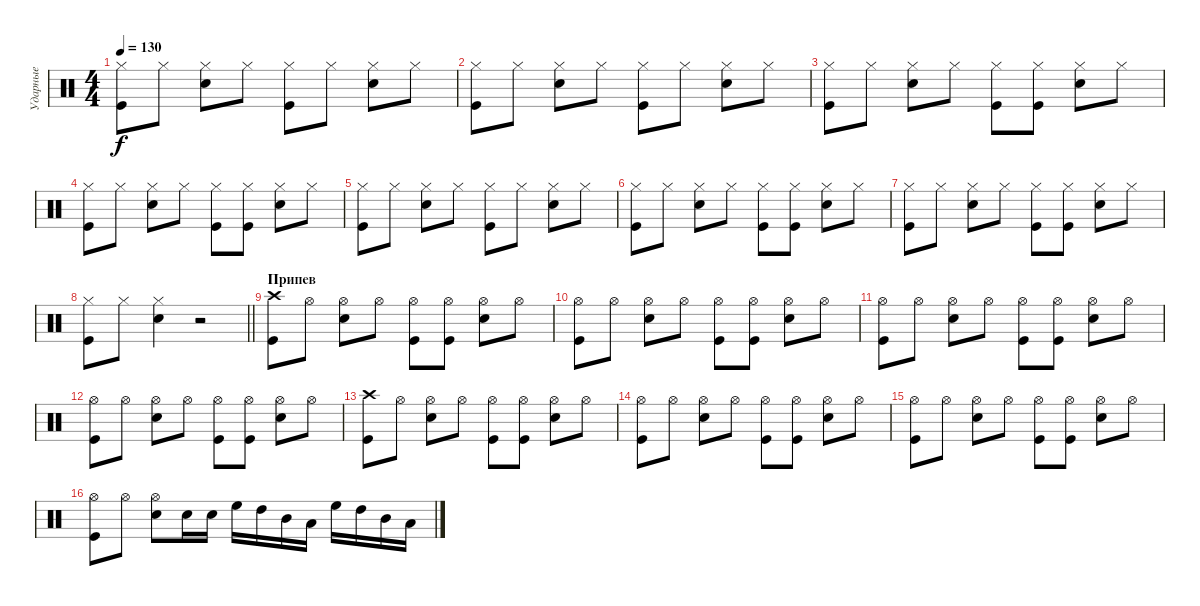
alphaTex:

\track ("Ударные" "Ударные") {instrument percussion}
\staff {score}
\articulation defaults
\ts (4 4)
\tempo 130
\clef neutral
\ks c
("Hi-Hat (closed)" "Kick (hit)").8{dy f} "Hi-Hat (closed)".8 ("Hi-Hat (closed)" "Snare (hit) 2").8 "Hi-Hat (closed)".8 ("Hi-Hat (closed)" "Kick (hit)").8 "Hi-Hat (closed)".8 ("Hi-Hat (closed)" "Snare (hit) 2").8 "Hi-Hat (closed)".8 |
("Hi-Hat (closed)" "Kick (hit)").8 "Hi-Hat (closed)".8 ("Hi-Hat (closed)" "Snare (hit) 2").8 "Hi-Hat (closed)".8 ("Hi-Hat (closed)" "Kick (hit)").8 "Hi-Hat (closed)".8 ("Hi-Hat (closed)" "Snare (hit) 2").8 "Hi-Hat (closed)".8 |
("Hi-Hat (closed)" "Kick (hit)").8 "Hi-Hat (closed)".8 ("Hi-Hat (closed)" "Snare (hit) 2").8 "Hi-Hat (closed)".8 ("Hi-Hat (closed)" "Kick (hit)").8 ("Hi-Hat (closed)" "Kick (hit)").8 ("Hi-Hat (closed)" "Snare (hit) 2").8 "Hi-Hat (closed)".8 |
("Hi-Hat (closed)" "Kick (hit)").8 "Hi-Hat (closed)".8 ("Hi-Hat (closed)" "Snare (hit) 2").8 "Hi-Hat (closed)".8 ("Hi-Hat (closed)" "Kick (hit)").8 ("Hi-Hat (closed)" "Kick (hit)").8 ("Hi-Hat (closed)" "Snare (hit) 2").8 "Hi-Hat (closed)".8 |
("Hi-Hat (closed)" "Kick (hit)").8 "Hi-Hat (closed)".8 ("Hi-Hat (closed)" "Snare (hit) 2").8 "Hi-Hat (closed)".8 ("Hi-Hat (closed)" "Kick (hit)").8 "Hi-Hat (closed)".8 ("Hi-Hat (closed)" "Snare (hit) 2").8 "Hi-Hat (closed)".8 |
("Hi-Hat (closed)" "Kick (hit)").8 "Hi-Hat (closed)".8 ("Hi-Hat (closed)" "Snare (hit) 2").8 "Hi-Hat (closed)".8 ("Hi-Hat (closed)" "Kick (hit)").8 ("Hi-Hat (closed)" "Kick (hit)").8 ("Hi-Hat (closed)" "Snare (hit) 2").8 "Hi-Hat (closed)".8 |
("Hi-Hat (closed)" "Kick (hit)").8 "Hi-Hat (closed)".8 ("Hi-Hat (closed)" "Snare (hit) 2").8 "Hi-Hat (closed)".8 ("Hi-Hat (closed)" "Kick (hit)").8 ("Hi-Hat (closed)" "Kick (hit)").8 ("Hi-Hat (closed)" "Snare (hit) 2").8 "Hi-Hat (closed)".8 |
\barLineRight lightlight
("Hi-Hat (closed)" "Kick (hit)").8 "Hi-Hat (closed)".8 ("Hi-Hat (closed)" "Snare (hit) 2").4 r.2 |
\section ("" "Припев")
("Crash high (hit)" "Kick (hit)").8 "Hi-Hat (open)".8 ("Hi-Hat (open)" "Snare (hit) 2").8 "Hi-Hat (open)".8 ("Hi-Hat (open)" "Kick (hit)").8 ("Hi-Hat (open)" "Kick (hit)").8 ("Hi-Hat (open)" "Snare (hit) 2").8 "Hi-Hat (open)".8 |
("Hi-Hat (open)" "Kick (hit)").8 "Hi-Hat (open)".8 ("Hi-Hat (open)" "Snare (hit) 2").8 "Hi-Hat (open)".8 ("Hi-Hat (open)" "Kick (hit)").8 ("Hi-Hat (open)" "Kick (hit)").8 ("Hi-Hat (open)" "Snare (hit) 2").8 "Hi-Hat (open)".8 |
("Hi-Hat (open)" "Kick (hit)").8 "Hi-Hat (open)".8 ("Hi-Hat (open)" "Snare (hit) 2").8 "Hi-Hat (open)".8 ("Hi-Hat (open)" "Kick (hit)").8 ("Hi-Hat (open)" "Kick (hit)").8 ("Hi-Hat (open)" "Snare (hit) 2").8 "Hi-Hat (open)".8 |
("Hi-Hat (open)" "Kick (hit)").8 "Hi-Hat (open)".8 ("Hi-Hat (open)" "Snare (hit) 2").8 "Hi-Hat (open)".8 ("Hi-Hat (open)" "Kick (hit)").8 ("Hi-Hat (open)" "Kick (hit)").8 ("Hi-Hat (open)" "Snare (hit) 2").8 "Hi-Hat (open)".8 |
("Crash high (hit)" "Kick (hit)").8 "Hi-Hat (open)".8 ("Hi-Hat (open)" "Snare (hit) 2").8 "Hi-Hat (open)".8 ("Hi-Hat (open)" "Kick (hit)").8 ("Hi-Hat (open)" "Kick (hit)").8 ("Hi-Hat (open)" "Snare (hit) 2").8 "Hi-Hat (open)".8 |
("Hi-Hat (open)" "Kick (hit)").8 "Hi-Hat (open)".8 ("Hi-Hat (open)" "Snare (hit) 2").8 "Hi-Hat (open)".8 ("Hi-Hat (open)" "Kick (hit)").8 ("Hi-Hat (open)" "Kick (hit)").8 ("Hi-Hat (open)" "Snare (hit) 2").8 "Hi-Hat (open)".8 |
("Hi-Hat (open)" "Kick (hit)").8 "Hi-Hat (open)".8 ("Hi-Hat (open)" "Snare (hit) 2").8 "Hi-Hat (open)".8 ("Hi-Hat (open)" "Kick (hit)").8 ("Hi-Hat (open)" "Kick (hit)").8 ("Hi-Hat (open)" "Snare (hit) 2").8 "Hi-Hat (open)".8 |
("Hi-Hat (open)" "Kick (hit)").8 "Hi-Hat (open)".8 ("Hi-Hat (open)" "Snare (hit) 2").8 "Snare (hit) 2".16 "Snare (hit) 2".16 "High Floor Tom (hit)".16 "High Tom (hit)".16 "Mid Tom (hit)".16 "Low Tom (hit)".16 "High Floor Tom (hit)".16 "High Tom (hit)".16 "Mid Tom (hit)".16 "Low Tom (hit)".16
